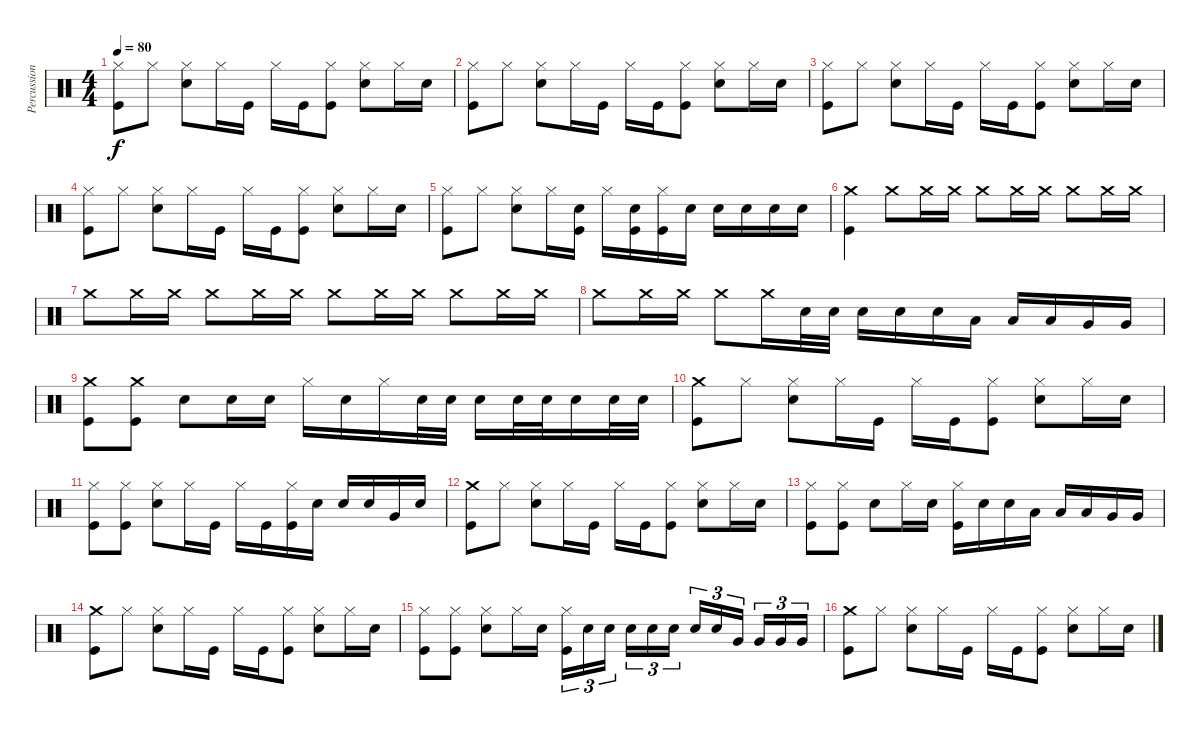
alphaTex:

\track ("Percussion" "Percussion") {instrument percussion}
\staff {score}
\articulation defaults
\ts (4 4)
\tempo 80
\clef neutral
\ks c
("Hi-Hat (closed)" "Kick (hit)").8{dy f} "Hi-Hat (closed)".8 ("Hi-Hat (closed)" "Snare (hit) 2").8 "Hi-Hat (closed)".16 "Kick (hit)".16 "Hi-Hat (closed)".16 "Kick (hit)".16 ("Hi-Hat (closed)" "Kick (hit)").8 ("Hi-Hat (closed)" "Snare (hit) 2").8 "Hi-Hat (closed)".16 "Snare (hit) 2".16 |
("Hi-Hat (closed)" "Kick (hit)").8 "Hi-Hat (closed)".8 ("Hi-Hat (closed)" "Snare (hit) 2").8 "Hi-Hat (closed)".16 "Kick (hit)".16 "Hi-Hat (closed)".16 "Kick (hit)".16 ("Hi-Hat (closed)" "Kick (hit)").8 ("Hi-Hat (closed)" "Snare (hit) 2").8 "Hi-Hat (closed)".16 "Snare (hit) 2".16 |
("Hi-Hat (closed)" "Kick (hit)").8 "Hi-Hat (closed)".8 ("Hi-Hat (closed)" "Snare (hit) 2").8 "Hi-Hat (closed)".16 "Kick (hit)".16 "Hi-Hat (closed)".16 "Kick (hit)".16 ("Hi-Hat (closed)" "Kick (hit)").8 ("Hi-Hat (closed)" "Snare (hit) 2").8 "Hi-Hat (closed)".16 "Snare (hit) 2".16 |
("Hi-Hat (closed)" "Kick (hit)").8 "Hi-Hat (closed)".8 ("Hi-Hat (closed)" "Snare (hit) 2").8 "Hi-Hat (closed)".16 "Kick (hit)".16 "Hi-Hat (closed)".16 "Kick (hit)".16 ("Hi-Hat (closed)" "Kick (hit)").8 ("Hi-Hat (closed)" "Snare (hit) 2").8 "Hi-Hat (closed)".16 "Snare (hit) 2".16 |
("Hi-Hat (closed)" "Kick (hit)").8 "Hi-Hat (closed)".8 ("Hi-Hat (closed)" "Snare (hit) 2").8 "Hi-Hat (closed)".16 ("Snare (hit) 2" "Kick (hit)").16 "Hi-Hat (closed)".16 ("Snare (hit) 2" "Kick (hit)").16 ("Hi-Hat (closed)" "Kick (hit)").16 "Snare (hit) 2".16 "Snare (hit) 2".16 "Snare (hit) 2".16 "Snare (hit) 2".16 "Snare (hit) 2".16 |
("Crash medium (hit)" "Kick (hit)").4 "Crash medium (hit)".8 "Crash medium (hit)".16 "Crash medium (hit)".16 "Crash medium (hit)".8 "Crash medium (hit)".16 "Crash medium (hit)".16 "Crash medium (hit)".8 "Crash medium (hit)".16 "Crash medium (hit)".16 |
"Crash medium (hit)".8 "Crash medium (hit)".16 "Crash medium (hit)".16 "Crash medium (hit)".8 "Crash medium (hit)".16 "Crash medium (hit)".16 "Crash medium (hit)".8 "Crash medium (hit)".16 "Crash medium (hit)".16 "Crash medium (hit)".8 "Crash medium (hit)".16 "Crash medium (hit)".16 |
"Crash medium (hit)".8 "Crash medium (hit)".16 "Crash medium (hit)".16 "Crash medium (hit)".8 "Crash medium (hit)".16 "Snare (hit) 2".32 "Snare (hit) 2".32 "Snare (hit) 2".16 "Snare (hit) 2".16 "Snare (hit) 2".16 "Low Tom (hit)".16 "Low Tom (hit)".16 "Low Tom (hit)".16 "Very Low Tom (hit)".16 "Very Low Tom (hit)".16 |
("Crash medium (hit)" "Kick (hit)").8 ("Crash medium (hit)" "Kick (hit)").8 "Snare (hit) 2".8 "Snare (hit) 2".16 "Snare (hit) 2".16 "Hi-Hat (closed)".16 "Snare (hit) 2".16 "Hi-Hat (closed)".16 "Snare (hit) 2".32 "Snare (hit) 2".32 "Snare (hit) 2".16 "Snare (hit) 2".32 "Snare (hit) 2".32 "Snare (hit) 2".16 "Snare (hit) 2".32 "Snare (hit) 2".32 |
("Crash medium (hit)" "Kick (hit)").8 "Hi-Hat (closed)".8 ("Hi-Hat (closed)" "Snare (hit) 2").8 "Hi-Hat (closed)".16 "Kick (hit)".16 "Hi-Hat (closed)".16 "Kick (hit)".16 ("Hi-Hat (closed)" "Kick (hit)").8 ("Hi-Hat (closed)" "Snare (hit) 2").8 "Hi-Hat (closed)".16 "Snare (hit) 2".16 |
("Hi-Hat (closed)" "Kick (hit)").8 ("Hi-Hat (closed)" "Kick (hit)").8 ("Hi-Hat (closed)" "Snare (hit) 2").8 "Hi-Hat (closed)".16 "Kick (hit)".16 "Hi-Hat (closed)".16 "Kick (hit)".16 ("Hi-Hat (closed)" "Kick (hit)").16 "Snare (hit) 2".16 "Snare (hit) 2".16 "Snare (hit) 2".16 "Very Low Tom (hit)".16 "Snare (hit) 2".16 |
("Crash medium (hit)" "Kick (hit)").8 "Hi-Hat (closed)".8 ("Hi-Hat (closed)" "Snare (hit) 2").8 "Hi-Hat (closed)".16 "Kick (hit)".16 "Hi-Hat (closed)".16 "Kick (hit)".16 ("Hi-Hat (closed)" "Kick (hit)").8 ("Hi-Hat (closed)" "Snare (hit) 2").8 "Hi-Hat (closed)".16 "Snare (hit) 2".16 |
("Hi-Hat (closed)" "Kick (hit)").8 ("Hi-Hat (closed)" "Kick (hit)").8 "Snare (hit) 2".8 "Hi-Hat (closed)".16 "Snare (hit) 2".16 ("Hi-Hat (closed)" "Kick (hit)").16 "Snare (hit) 2".16 "Snare (hit) 2".16 "Low Tom (hit)".16 "Low Tom (hit)".16 "Low Tom (hit)".16 "Very Low Tom (hit)".16 "Very Low Tom (hit)".16 |
("Crash medium (hit)" "Kick (hit)").8 "Hi-Hat (closed)".8 ("Hi-Hat (closed)" "Snare (hit) 2").8 "Hi-Hat (closed)".16 "Kick (hit)".16 "Hi-Hat (closed)".16 "Kick (hit)".16 ("Hi-Hat (closed)" "Kick (hit)").8 ("Hi-Hat (closed)" "Snare (hit) 2").8 "Hi-Hat (closed)".16 "Snare (hit) 2".16 |
("Hi-Hat (closed)" "Kick (hit)").8 ("Hi-Hat (closed)" "Kick (hit)").8 ("Hi-Hat (closed)" "Snare (hit) 2").8 "Hi-Hat (closed)".16 "Snare (hit) 2".16 ("Hi-Hat (closed)" "Kick (hit)").16{tu (3 2)} "Snare (hit) 2".16{tu (3 2)} "Snare (hit) 2".16{tu (3 2)} "Snare (hit) 2".16{tu (3 2)} "Snare (hit) 2".16{tu (3 2)} "Snare (hit) 2".16{tu (3 2)} "Snare (hit) 2".16{tu (3 2)} "Snare (hit) 2".16{tu (3 2)} "Very Low Tom (hit)".16{tu (3 2)} "Very Low Tom (hit)".16{tu (3 2)} "Very Low Tom (hit)".16{tu (3 2)} "Very Low Tom (hit)".16{tu (3 2)} |
("Crash medium (hit)" "Kick (hit)").8 "Hi-Hat (closed)".8 ("Hi-Hat (closed)" "Snare (hit) 2").8 "Hi-Hat (closed)".16 "Kick (hit)".16 "Hi-Hat (closed)".16 "Kick (hit)".16 ("Hi-Hat (closed)" "Kick (hit)").8 ("Hi-Hat (closed)" "Snare (hit) 2").8 "Hi-Hat (closed)".16 "Snare (hit) 2".16
